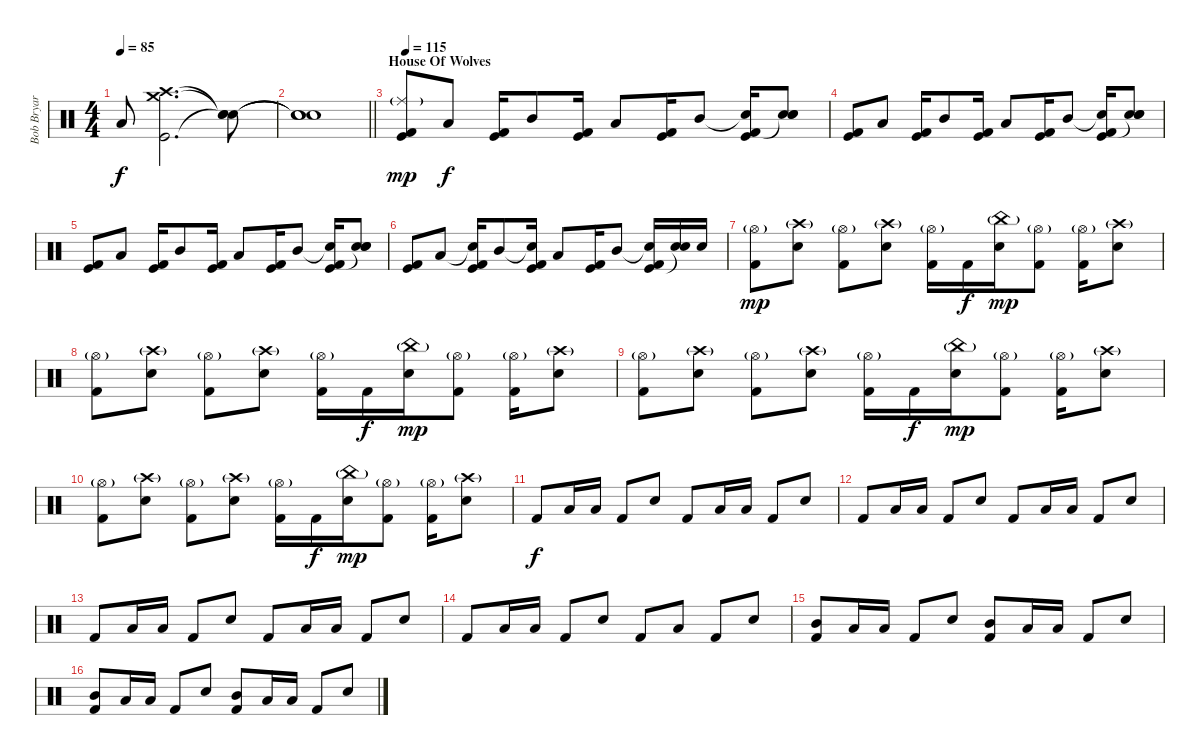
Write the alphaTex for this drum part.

\track ("Bob Bryar [Drums]" "Bob Bryar ") {instrument percussion}
\staff {score}
\articulation defaults
\ts (4 4)
\tempo 85
\clef neutral
\ks c "Low Floor Tom (hit)".8{dy f}
("Crash high (hit)" "Crash medium (hit)" "Kick (hit)").2{d} ("Snare (hit)"{t} "Snare (hit)"{t} "Snare (hit)"{t}).8 |
\barLineRight lightlight
("Snare (hit)"{t} "Snare (hit)"{t} "Snare (hit)"{t}).1 |
\section ("" "House Of Wolves")
\tempo 115
("Ride (middle)"{g} "Kick (hit)" "Kick (hit) 2").8{dy mp} "Low Tom (hit)".8{dy f} ("Kick (hit)" "Kick (hit) 2").16 "Mid Tom (hit)".8 ("Kick (hit)" "Kick (hit) 2").16 "Low Tom (hit)".8 ("Kick (hit)" "Kick (hit) 2").16 "Mid Tom (hit)".8 ("Snare (hit)"{t} "Kick (hit)" "Kick (hit) 2").16 ("Snare (hit) 2" "Electric Snare (hit)" "Snare (hit)"{t}).8 |
("Kick (hit)" "Kick (hit) 2").8 "Low Tom (hit)".8 ("Kick (hit)" "Kick (hit) 2").16 "Mid Tom (hit)".8 ("Kick (hit)" "Kick (hit) 2").16 "Low Tom (hit)".8 ("Kick (hit)" "Kick (hit) 2").16 "Mid Tom (hit)".8 ("Snare (hit)"{t} "Kick (hit)" "Kick (hit) 2").16 ("Snare (hit) 2" "Electric Snare (hit)" "Snare (hit)"{t}).8 |
("Kick (hit)" "Kick (hit) 2").8 "Low Tom (hit)".8 ("Kick (hit)" "Kick (hit) 2").16 "Mid Tom (hit)".8 ("Kick (hit)" "Kick (hit) 2").16 "Low Tom (hit)".8 ("Kick (hit)" "Kick (hit) 2").16 "Mid Tom (hit)".8 ("Snare (hit)"{t} "Kick (hit)" "Kick (hit) 2").16 ("Snare (hit) 2" "Electric Snare (hit)" "Snare (hit)"{t}).8 |
("Kick (hit)" "Kick (hit) 2").8 "Low Tom (hit)".8 ("Snare (hit)"{t} "Kick (hit)" "Kick (hit) 2").16 "Mid Tom (hit)".8 ("Snare (hit)"{t} "Kick (hit)" "Kick (hit) 2").16 "Low Tom (hit)".8 ("Kick (hit)" "Kick (hit) 2").16 "Mid Tom (hit)".8 ("Snare (hit)"{t} "Kick (hit)" "Kick (hit) 2").16 ("Electric Snare (hit)" "Snare (hit)"{t}).16 "Electric Snare (hit)".16 |
("Hi-Hat (open)"{g} "Kick (hit) 2").8{dy mp} ("Crash high (hit)"{g} "Electric Snare (hit)").8 ("Hi-Hat (open)"{g} "Kick (hit) 2").8 ("Crash high (hit)"{g} "Electric Snare (hit)").8 ("Hi-Hat (open)"{g} "Kick (hit) 2").16 "Kick (hit) 2".16{dy f} ("China (hit)"{g} "Electric Snare (hit)").16{dy mp} ("Hi-Hat (open)"{g} "Kick (hit) 2").8 ("Hi-Hat (open)"{g} "Kick (hit) 2").16 ("Crash high (hit)"{g} "Electric Snare (hit)").8 |
("Hi-Hat (open)"{g} "Kick (hit) 2").8 ("Crash high (hit)"{g} "Electric Snare (hit)").8 ("Hi-Hat (open)"{g} "Kick (hit) 2").8 ("Crash high (hit)"{g} "Electric Snare (hit)").8 ("Hi-Hat (open)"{g} "Kick (hit) 2").16 "Kick (hit) 2".16{dy f} ("China (hit)"{g} "Electric Snare (hit)").16{dy mp} ("Hi-Hat (open)"{g} "Kick (hit) 2").8 ("Hi-Hat (open)"{g} "Kick (hit) 2").16 ("Crash high (hit)"{g} "Electric Snare (hit)").8 |
("Hi-Hat (open)"{g} "Kick (hit) 2").8 ("Crash high (hit)"{g} "Electric Snare (hit)").8 ("Hi-Hat (open)"{g} "Kick (hit) 2").8 ("Crash high (hit)"{g} "Electric Snare (hit)").8 ("Hi-Hat (open)"{g} "Kick (hit) 2").16 "Kick (hit) 2".16{dy f} ("China (hit)"{g} "Electric Snare (hit)").16{dy mp} ("Hi-Hat (open)"{g} "Kick (hit) 2").8 ("Hi-Hat (open)"{g} "Kick (hit) 2").16 ("Crash high (hit)"{g} "Electric Snare (hit)").8 |
("Hi-Hat (open)"{g} "Kick (hit) 2").8 ("Crash high (hit)"{g} "Electric Snare (hit)").8 ("Hi-Hat (open)"{g} "Kick (hit) 2").8 ("Crash high (hit)"{g} "Electric Snare (hit)").8 ("Hi-Hat (open)"{g} "Kick (hit) 2").16 "Kick (hit) 2".16{dy f} ("China (hit)"{g} "Electric Snare (hit)").16{dy mp} ("Hi-Hat (open)"{g} "Kick (hit) 2").8 ("Hi-Hat (open)"{g} "Kick (hit) 2").16 ("Crash high (hit)"{g} "Electric Snare (hit)").8 |
"Kick (hit) 2".8{dy f} "Low Tom (hit)".16 "Low Tom (hit)".16 "Kick (hit) 2".8 "Electric Snare (hit)".8 "Kick (hit) 2".8 "Low Tom (hit)".16 "Low Tom (hit)".16 "Kick (hit) 2".8 "Electric Snare (hit)".8 |
"Kick (hit) 2".8 "Low Tom (hit)".16 "Low Tom (hit)".16 "Kick (hit) 2".8 "Electric Snare (hit)".8 "Kick (hit) 2".8 "Low Tom (hit)".16 "Low Tom (hit)".16 "Kick (hit) 2".8 "Electric Snare (hit)".8 |
"Kick (hit) 2".8 "Low Tom (hit)".16 "Low Tom (hit)".16 "Kick (hit) 2".8 "Electric Snare (hit)".8 "Kick (hit) 2".8 "Low Tom (hit)".16 "Low Tom (hit)".16 "Kick (hit) 2".8 "Electric Snare (hit)".8 |
"Kick (hit) 2".8 "Low Tom (hit)".16 "Low Tom (hit)".16 "Kick (hit) 2".8 "Electric Snare (hit)".8 "Kick (hit) 2".8 "Low Tom (hit)".8 "Kick (hit) 2".8 "Electric Snare (hit)".8 |
("Mid Tom (hit)" "Kick (hit) 2").8 "Low Tom (hit)".16 "Low Tom (hit)".16 "Kick (hit) 2".8 "Electric Snare (hit)".8 ("Mid Tom (hit)" "Kick (hit) 2").8 "Low Tom (hit)".16 "Low Tom (hit)".16 "Kick (hit) 2".8 "Electric Snare (hit)".8 |
("Mid Tom (hit)" "Kick (hit) 2").8 "Low Tom (hit)".16 "Low Tom (hit)".16 "Kick (hit) 2".8 "Electric Snare (hit)".8 ("Mid Tom (hit)" "Kick (hit) 2").8 "Low Tom (hit)".16 "Low Tom (hit)".16 "Kick (hit) 2".8 "Electric Snare (hit)".8
